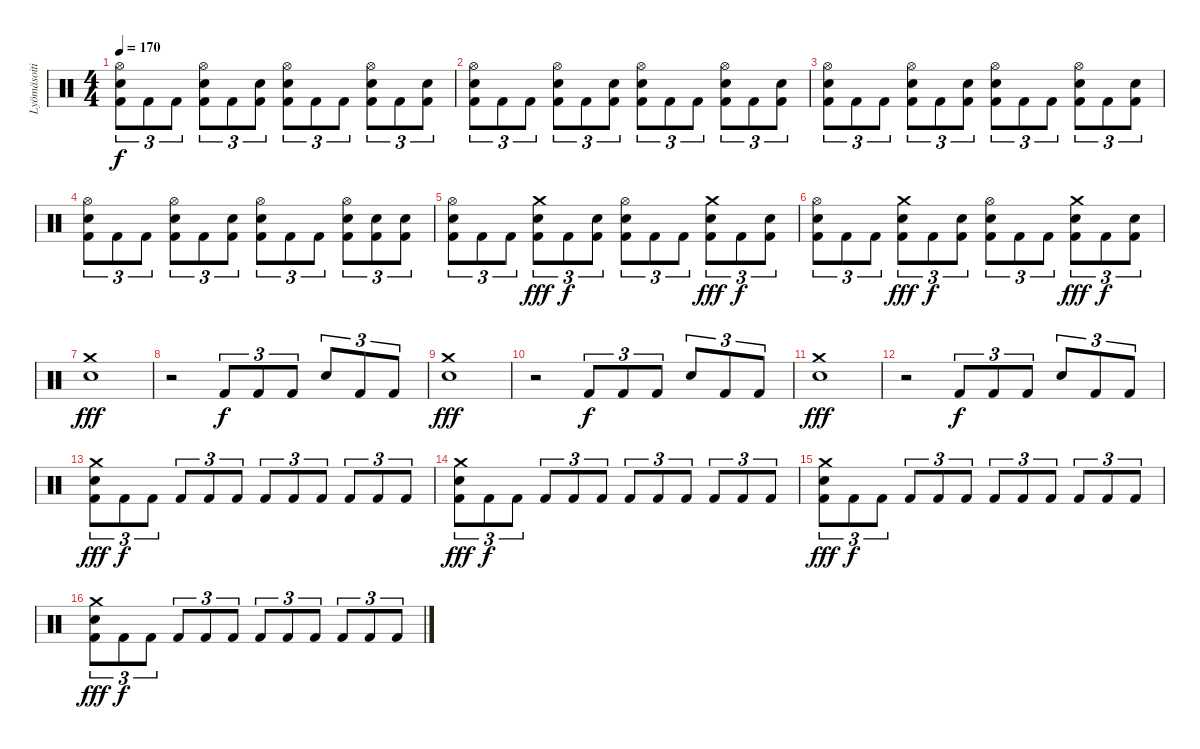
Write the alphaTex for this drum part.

\track ("Lyömäsoitin" "Lyömäsoiti") {instrument percussion}
\staff {score}
\articulation defaults
\ts (4 4)
\tempo 170
\clef neutral
\ks c
("Snare (hit) 2" "Kick (hit) 2" "Hi-Hat (open)").8{tu (3 2) dy f} "Kick (hit) 2".8{tu (3 2)} "Kick (hit) 2".8{tu (3 2)} ("Snare (hit) 2" "Kick (hit) 2" "Hi-Hat (open)").8{tu (3 2)} "Kick (hit) 2".8{tu (3 2)} ("Snare (hit) 2" "Kick (hit) 2").8{tu (3 2)} ("Snare (hit) 2" "Kick (hit) 2" "Hi-Hat (open)").8{tu (3 2)} "Kick (hit) 2".8{tu (3 2)} "Kick (hit) 2".8{tu (3 2)} ("Snare (hit) 2" "Kick (hit) 2" "Hi-Hat (open)").8{tu (3 2)} "Kick (hit) 2".8{tu (3 2)} ("Snare (hit) 2" "Kick (hit) 2").8{tu (3 2)} |
("Snare (hit) 2" "Kick (hit) 2" "Hi-Hat (open)").8{tu (3 2)} "Kick (hit) 2".8{tu (3 2)} "Kick (hit) 2".8{tu (3 2)} ("Snare (hit) 2" "Kick (hit) 2" "Hi-Hat (open)").8{tu (3 2)} "Kick (hit) 2".8{tu (3 2)} ("Snare (hit) 2" "Kick (hit) 2").8{tu (3 2)} ("Snare (hit) 2" "Kick (hit) 2" "Hi-Hat (open)").8{tu (3 2)} "Kick (hit) 2".8{tu (3 2)} "Kick (hit) 2".8{tu (3 2)} ("Snare (hit) 2" "Kick (hit) 2" "Hi-Hat (open)").8{tu (3 2)} "Kick (hit) 2".8{tu (3 2)} ("Snare (hit) 2" "Kick (hit) 2").8{tu (3 2)} |
("Snare (hit) 2" "Kick (hit) 2" "Hi-Hat (open)").8{tu (3 2)} "Kick (hit) 2".8{tu (3 2)} "Kick (hit) 2".8{tu (3 2)} ("Snare (hit) 2" "Kick (hit) 2" "Hi-Hat (open)").8{tu (3 2)} "Kick (hit) 2".8{tu (3 2)} ("Snare (hit) 2" "Kick (hit) 2").8{tu (3 2)} ("Snare (hit) 2" "Kick (hit) 2" "Hi-Hat (open)").8{tu (3 2)} "Kick (hit) 2".8{tu (3 2)} "Kick (hit) 2".8{tu (3 2)} ("Snare (hit) 2" "Kick (hit) 2" "Hi-Hat (open)").8{tu (3 2)} "Kick (hit) 2".8{tu (3 2)} ("Snare (hit) 2" "Kick (hit) 2").8{tu (3 2)} |
("Snare (hit) 2" "Kick (hit) 2" "Hi-Hat (open)").8{tu (3 2)} "Kick (hit) 2".8{tu (3 2)} "Kick (hit) 2".8{tu (3 2)} ("Snare (hit) 2" "Kick (hit) 2" "Hi-Hat (open)").8{tu (3 2)} "Kick (hit) 2".8{tu (3 2)} ("Snare (hit) 2" "Kick (hit) 2").8{tu (3 2)} ("Snare (hit) 2" "Kick (hit) 2" "Hi-Hat (open)").8{tu (3 2)} "Kick (hit) 2".8{tu (3 2)} "Kick (hit) 2".8{tu (3 2)} ("Snare (hit) 2" "Kick (hit) 2" "Hi-Hat (open)").8{tu (3 2)} ("Snare (hit) 2" "Kick (hit) 2").8{tu (3 2)} ("Snare (hit) 2" "Kick (hit) 2").8{tu (3 2)} |
("Snare (hit) 2" "Kick (hit) 2" "Hi-Hat (open)").8{tu (3 2)} "Kick (hit) 2".8{tu (3 2)} "Kick (hit) 2".8{tu (3 2)} ("Crash medium (hit)" "Snare (hit) 2" "Kick (hit) 2").8{tu (3 2) dy fff} "Kick (hit) 2".8{tu (3 2) dy f} ("Snare (hit) 2" "Kick (hit) 2").8{tu (3 2)} ("Snare (hit) 2" "Kick (hit) 2" "Hi-Hat (open)").8{tu (3 2)} "Kick (hit) 2".8{tu (3 2)} "Kick (hit) 2".8{tu (3 2)} ("Crash medium (hit)" "Snare (hit) 2" "Kick (hit) 2").8{tu (3 2) dy fff} "Kick (hit) 2".8{tu (3 2) dy f} ("Snare (hit) 2" "Kick (hit) 2").8{tu (3 2)} |
("Snare (hit) 2" "Kick (hit) 2" "Hi-Hat (open)").8{tu (3 2)} "Kick (hit) 2".8{tu (3 2)} "Kick (hit) 2".8{tu (3 2)} ("Crash medium (hit)" "Snare (hit) 2" "Kick (hit) 2").8{tu (3 2) dy fff} "Kick (hit) 2".8{tu (3 2) dy f} ("Snare (hit) 2" "Kick (hit) 2").8{tu (3 2)} ("Snare (hit) 2" "Kick (hit) 2" "Hi-Hat (open)").8{tu (3 2)} "Kick (hit) 2".8{tu (3 2)} "Kick (hit) 2".8{tu (3 2)} ("Crash medium (hit)" "Snare (hit) 2" "Kick (hit) 2").8{tu (3 2) dy fff} "Kick (hit) 2".8{tu (3 2) dy f} ("Snare (hit) 2" "Kick (hit) 2").8{tu (3 2)} |
("Snare (hit) 2" "Crash medium (hit)").1{dy fff} |
r.2 "Kick (hit) 2".8{tu (3 2) dy f} "Kick (hit) 2".8{tu (3 2)} "Kick (hit) 2".8{tu (3 2)} "Snare (hit) 2".8{tu (3 2)} "Kick (hit) 2".8{tu (3 2)} "Kick (hit) 2".8{tu (3 2)} |
("Crash medium (hit)" "Snare (hit) 2").1{dy fff} |
r.2 "Kick (hit) 2".8{tu (3 2) dy f} "Kick (hit) 2".8{tu (3 2)} "Kick (hit) 2".8{tu (3 2)} "Snare (hit) 2".8{tu (3 2)} "Kick (hit) 2".8{tu (3 2)} "Kick (hit) 2".8{tu (3 2)} |
("Crash medium (hit)" "Snare (hit) 2").1{dy fff} |
r.2 "Kick (hit) 2".8{tu (3 2) dy f} "Kick (hit) 2".8{tu (3 2)} "Kick (hit) 2".8{tu (3 2)} "Snare (hit) 2".8{tu (3 2)} "Kick (hit) 2".8{tu (3 2)} "Kick (hit) 2".8{tu (3 2)} |
("Crash medium (hit)" "Snare (hit) 2" "Kick (hit) 2").8{tu (3 2) dy fff} "Kick (hit) 2".8{tu (3 2) dy f} "Kick (hit) 2".8{tu (3 2)} "Kick (hit) 2".8{tu (3 2)} "Kick (hit) 2".8{tu (3 2)} "Kick (hit) 2".8{tu (3 2)} "Kick (hit) 2".8{tu (3 2)} "Kick (hit) 2".8{tu (3 2)} "Kick (hit) 2".8{tu (3 2)} "Kick (hit) 2".8{tu (3 2)} "Kick (hit) 2".8{tu (3 2)} "Kick (hit) 2".8{tu (3 2)} |
("Crash medium (hit)" "Snare (hit) 2" "Kick (hit) 2").8{tu (3 2) dy fff} "Kick (hit) 2".8{tu (3 2) dy f} "Kick (hit) 2".8{tu (3 2)} "Kick (hit) 2".8{tu (3 2)} "Kick (hit) 2".8{tu (3 2)} "Kick (hit) 2".8{tu (3 2)} "Kick (hit) 2".8{tu (3 2)} "Kick (hit) 2".8{tu (3 2)} "Kick (hit) 2".8{tu (3 2)} "Kick (hit) 2".8{tu (3 2)} "Kick (hit) 2".8{tu (3 2)} "Kick (hit) 2".8{tu (3 2)} |
("Crash medium (hit)" "Snare (hit) 2" "Kick (hit) 2").8{tu (3 2) dy fff} "Kick (hit) 2".8{tu (3 2) dy f} "Kick (hit) 2".8{tu (3 2)} "Kick (hit) 2".8{tu (3 2)} "Kick (hit) 2".8{tu (3 2)} "Kick (hit) 2".8{tu (3 2)} "Kick (hit) 2".8{tu (3 2)} "Kick (hit) 2".8{tu (3 2)} "Kick (hit) 2".8{tu (3 2)} "Kick (hit) 2".8{tu (3 2)} "Kick (hit) 2".8{tu (3 2)} "Kick (hit) 2".8{tu (3 2)} |
("Crash medium (hit)" "Snare (hit) 2" "Kick (hit) 2").8{tu (3 2) dy fff} "Kick (hit) 2".8{tu (3 2) dy f} "Kick (hit) 2".8{tu (3 2)} "Kick (hit) 2".8{tu (3 2)} "Kick (hit) 2".8{tu (3 2)} "Kick (hit) 2".8{tu (3 2)} "Kick (hit) 2".8{tu (3 2)} "Kick (hit) 2".8{tu (3 2)} "Kick (hit) 2".8{tu (3 2)} "Kick (hit) 2".8{tu (3 2)} "Kick (hit) 2".8{tu (3 2)} "Kick (hit) 2".8{tu (3 2)}
